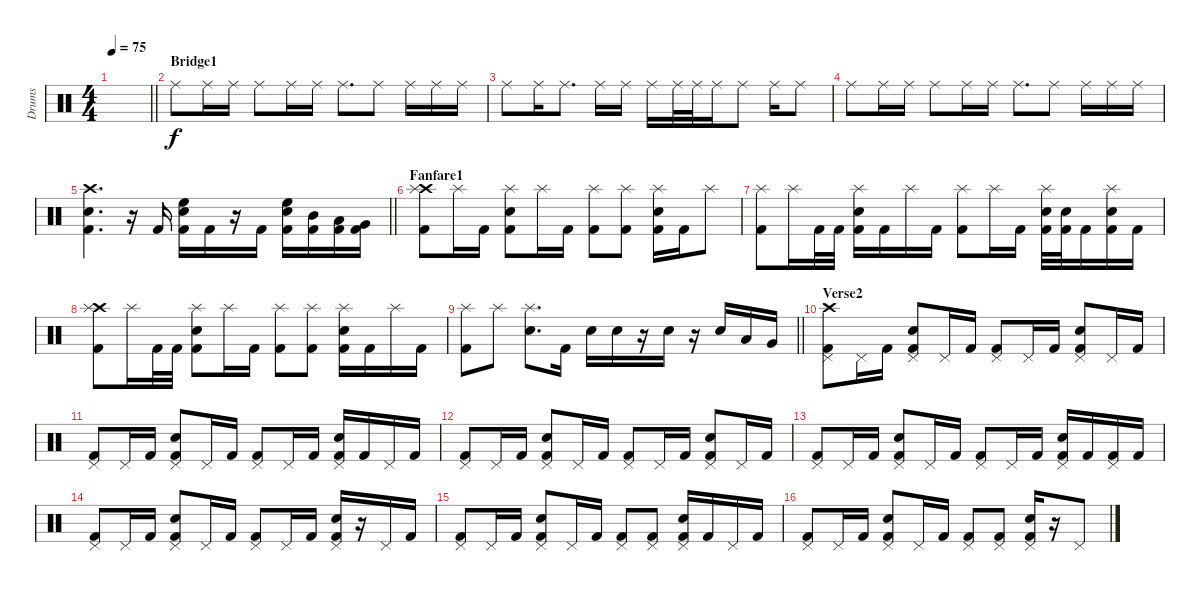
\track ("Drums" "Drums") {instrument percussion}
\staff {score}
\articulation defaults
\ts (4 4)
\tempo 75
\clef neutral
\barLineRight lightlight
\ks c
|
\section ("" "Bridge1")
"Ride (middle)".8{volume 1} "Ride (middle)".16 "Ride (middle)".16 "Ride (middle)".8 "Ride (middle)".16 "Ride (middle)".16 "Ride (middle)".8{d} "Ride (middle)".8 "Ride (middle)".16 "Ride (middle)".16 "Ride (middle)".16 |
"Ride (middle)".8 "Ride (middle)".16 "Ride (middle)".8{d} "Ride (middle)".16 "Ride (middle)".16 "Ride (middle)".16 "Ride (middle)".32 "Ride (middle)".32 "Ride (middle)".16 "Ride (middle)".8 "Ride (middle)".16 "Ride (middle)".8 |
"Ride (middle)".8 "Ride (middle)".16 "Ride (middle)".16 "Ride (middle)".8 "Ride (middle)".16 "Ride (middle)".16 "Ride (middle)".8{d} "Ride (middle)".8 "Ride (middle)".16 "Ride (middle)".16 "Ride (middle)".16 |
\barLineRight lightlight
("Crash high (hit)" "Snare (hit) 2" "Kick (hit) 2").4{d volume 13} r.16 "Kick (hit) 2".16 ("Snare (hit) 2" "High Floor Tom (hit)" "Kick (hit) 2").16 "Kick (hit) 2".16 r.16 "Kick (hit) 2".16 ("Snare (hit) 2" "High Floor Tom (hit)" "Kick (hit) 2").16 ("Mid Tom (hit)" "Kick (hit) 2").16 ("Low Tom (hit)" "Kick (hit) 2").16 ("Very Low Tom (hit)" "Kick (hit) 2").16 |
\section ("" "Fanfare1")
("Crash high (hit)" "Splash (hit)" "Kick (hit) 2").8 "Splash (hit)".16 "Kick (hit) 2".16 ("Splash (hit)" "Snare (hit) 2" "Kick (hit) 2").8 "Splash (hit)".16 "Kick (hit) 2".16 ("Splash (hit)" "Kick (hit) 2").8 ("Splash (hit)" "Kick (hit) 2").8 ("Splash (hit)" "Snare (hit) 2" "Kick (hit) 2").16 "Kick (hit) 2".16 "Splash (hit)".8 |
("Splash (hit)" "Kick (hit) 2").8 "Splash (hit)".16 "Kick (hit) 2".32 "Kick (hit) 2".32 ("Splash (hit)" "Snare (hit) 2" "Kick (hit) 2").16 "Kick (hit) 2".16 "Splash (hit)".16 "Kick (hit) 2".16 ("Splash (hit)" "Kick (hit) 2").8 "Splash (hit)".16 "Kick (hit) 2".16 ("Splash (hit)" "Snare (hit) 2" "Kick (hit) 2").32 ("Snare (hit) 2" "Kick (hit) 2").32 "Kick (hit) 2".16 ("Splash (hit)" "Snare (hit) 2" "Kick (hit) 2").16 "Kick (hit) 2".16 |
("Crash high (hit)" "Splash (hit)" "Kick (hit) 2").8 "Splash (hit)".16 "Kick (hit) 2".32 "Kick (hit) 2".32 ("Splash (hit)" "Snare (hit) 2" "Kick (hit) 2").8 "Splash (hit)".16 "Kick (hit) 2".16 ("Splash (hit)" "Kick (hit) 2").8 ("Splash (hit)" "Kick (hit) 2").8 ("Splash (hit)" "Snare (hit) 2" "Kick (hit) 2").16 "Kick (hit) 2".16 "Splash (hit)".16 "Kick (hit) 2".16 |
\barLineRight lightlight
("Splash (hit)" "Kick (hit) 2").8 "Splash (hit)".8 ("Splash (hit)" "Snare (hit) 2").8{d} "Kick (hit) 2".16 "Snare (hit) 2".16 "Snare (hit) 2".16 r.16 "Snare (hit) 2".16 r.16 "Snare (hit) 2".16 "Low Tom (hit)".16 "Very Low Tom (hit)".16 |
\section ("" "Verse2")
("Crash high (hit)" "Pedal Hi-Hat (hit)" "Kick (hit) 2").8 "Pedal Hi-Hat (hit)".16 "Kick (hit) 2".16 ("Pedal Hi-Hat (hit)" "Snare (hit) 2" "Kick (hit) 2").8 "Pedal Hi-Hat (hit)".16 "Kick (hit) 2".16 ("Pedal Hi-Hat (hit)" "Kick (hit) 2").8 "Pedal Hi-Hat (hit)".16 "Kick (hit) 2".16 ("Pedal Hi-Hat (hit)" "Snare (hit) 2" "Kick (hit) 2").8 "Pedal Hi-Hat (hit)".16 "Kick (hit) 2".16 |
("Pedal Hi-Hat (hit)" "Kick (hit) 2").8 "Pedal Hi-Hat (hit)".16 "Kick (hit) 2".16 ("Pedal Hi-Hat (hit)" "Snare (hit) 2" "Kick (hit) 2").8 "Pedal Hi-Hat (hit)".16 "Kick (hit) 2".16 ("Pedal Hi-Hat (hit)" "Kick (hit) 2").8 "Pedal Hi-Hat (hit)".16 "Kick (hit) 2".16 ("Pedal Hi-Hat (hit)" "Snare (hit) 2" "Kick (hit) 2").16 "Kick (hit) 2".16 "Pedal Hi-Hat (hit)".16 "Kick (hit) 2".16 |
("Pedal Hi-Hat (hit)" "Kick (hit) 2").8 "Pedal Hi-Hat (hit)".16 "Kick (hit) 2".16 ("Pedal Hi-Hat (hit)" "Snare (hit) 2" "Kick (hit) 2").8 "Pedal Hi-Hat (hit)".16 "Kick (hit) 2".16 ("Pedal Hi-Hat (hit)" "Kick (hit) 2").8 "Pedal Hi-Hat (hit)".16 "Kick (hit) 2".16 ("Pedal Hi-Hat (hit)" "Snare (hit) 2" "Kick (hit) 2").8 "Pedal Hi-Hat (hit)".16 "Kick (hit) 2".16 |
("Pedal Hi-Hat (hit)" "Kick (hit) 2").8 "Pedal Hi-Hat (hit)".16 "Kick (hit) 2".16 ("Pedal Hi-Hat (hit)" "Snare (hit) 2" "Kick (hit) 2").8 "Pedal Hi-Hat (hit)".16 "Kick (hit) 2".16 ("Pedal Hi-Hat (hit)" "Kick (hit) 2").8 "Pedal Hi-Hat (hit)".16 "Kick (hit) 2".16 ("Pedal Hi-Hat (hit)" "Snare (hit) 2" "Kick (hit) 2").16 "Kick (hit) 2".16 ("Pedal Hi-Hat (hit)" "Kick (hit) 2").16 "Kick (hit) 2".16 |
("Pedal Hi-Hat (hit)" "Kick (hit) 2").8 "Pedal Hi-Hat (hit)".16 "Kick (hit) 2".16 ("Pedal Hi-Hat (hit)" "Snare (hit) 2" "Kick (hit) 2").8 "Pedal Hi-Hat (hit)".16 "Kick (hit) 2".16 ("Pedal Hi-Hat (hit)" "Kick (hit) 2").8 "Pedal Hi-Hat (hit)".16 "Kick (hit) 2".16 ("Pedal Hi-Hat (hit)" "Snare (hit) 2" "Kick (hit) 2").16 r.16 "Pedal Hi-Hat (hit)".16 "Kick (hit) 2".16 |
("Pedal Hi-Hat (hit)" "Kick (hit) 2").8 "Pedal Hi-Hat (hit)".16 "Kick (hit) 2".16 ("Pedal Hi-Hat (hit)" "Snare (hit) 2" "Kick (hit) 2").8 "Pedal Hi-Hat (hit)".16 "Kick (hit) 2".16 ("Pedal Hi-Hat (hit)" "Kick (hit) 2").8 ("Pedal Hi-Hat (hit)" "Kick (hit) 2").8 ("Pedal Hi-Hat (hit)" "Snare (hit) 2" "Kick (hit) 2").16 "Kick (hit) 2".16 "Pedal Hi-Hat (hit)".16 "Kick (hit) 2".16 |
("Pedal Hi-Hat (hit)" "Kick (hit) 2").8 "Pedal Hi-Hat (hit)".16 "Kick (hit) 2".16 ("Pedal Hi-Hat (hit)" "Snare (hit) 2" "Kick (hit) 2").8 "Pedal Hi-Hat (hit)".16 "Kick (hit) 2".16 ("Pedal Hi-Hat (hit)" "Kick (hit) 2").8 ("Pedal Hi-Hat (hit)" "Kick (hit) 2").8 ("Pedal Hi-Hat (hit)" "Snare (hit) 2" "Kick (hit) 2").16 r.16 "Pedal Hi-Hat (hit)".8
